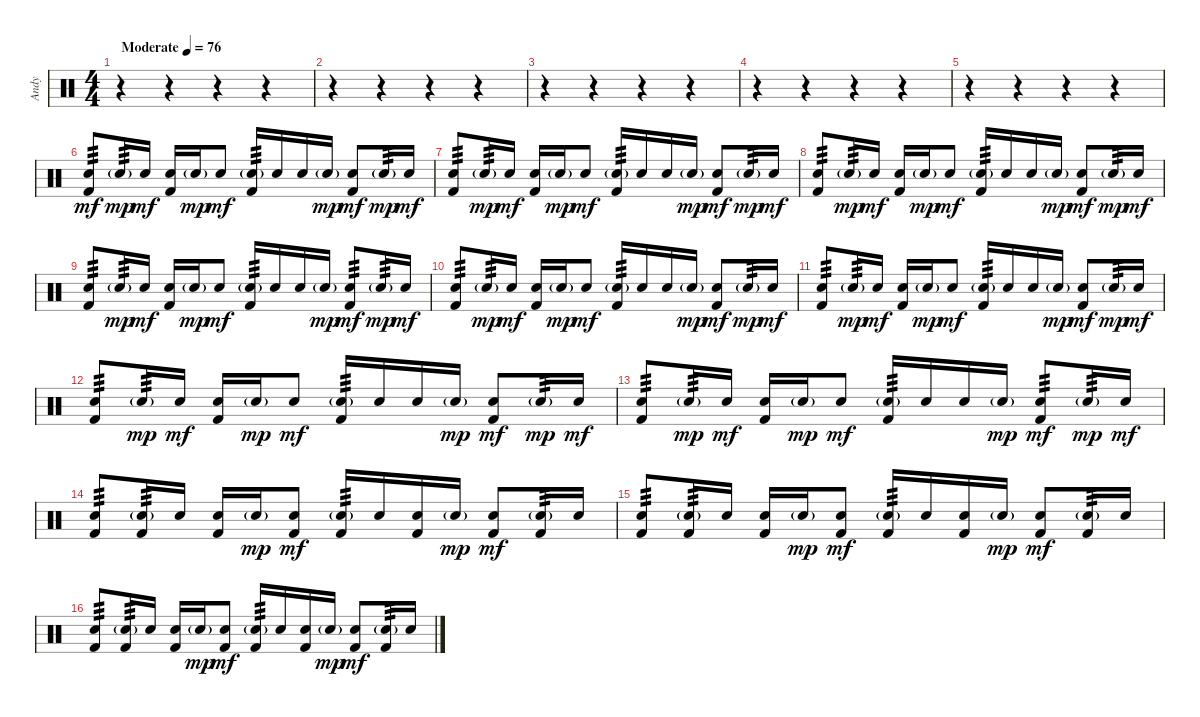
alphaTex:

\track ("Andy" "Andy") {instrument percussion}
\staff {score}
\articulation defaults
\ts (4 4)
\tempo (76 "Moderate")
\clef neutral
\ks c
r.4{dy mf} r.4 r.4 r.4 |
r.4 r.4 r.4 r.4 |
r.4 r.4 r.4 r.4 |
r.4 r.4 r.4 r.4 |
r.4 r.4 r.4 r.4 |
("Electric Snare (hit)" "Kick (hit) 2").8{tp 3} "Electric Snare (hit)"{g}.16{tp 3 dy mp} "Electric Snare (hit)".16{dy mf} ("Electric Snare (hit)" "Kick (hit) 2").16 "Electric Snare (hit)"{g}.16{dy mp} "Electric Snare (hit)".8{dy mf} ("Electric Snare (hit)"{g} "Kick (hit) 2").16{tp 3} "Electric Snare (hit)".16 "Electric Snare (hit)".16 "Electric Snare (hit)"{g}.16{dy mp} ("Electric Snare (hit)" "Kick (hit) 2").8{dy mf} "Electric Snare (hit)"{g}.16{tp 3 dy mp} "Electric Snare (hit)".16{dy mf} |
("Electric Snare (hit)" "Kick (hit) 2").8{tp 3} "Electric Snare (hit)"{g}.16{tp 3 dy mp} "Electric Snare (hit)".16{dy mf} ("Electric Snare (hit)" "Kick (hit) 2").16 "Electric Snare (hit)"{g}.16{dy mp} "Electric Snare (hit)".8{dy mf} ("Electric Snare (hit)"{g} "Kick (hit) 2").16{tp 3} "Electric Snare (hit)".16 "Electric Snare (hit)".16 "Electric Snare (hit)"{g}.16{dy mp} ("Electric Snare (hit)" "Kick (hit) 2").8{dy mf} "Electric Snare (hit)"{g}.16{tp 3 dy mp} "Electric Snare (hit)".16{dy mf} |
("Electric Snare (hit)" "Kick (hit) 2").8{tp 3} "Electric Snare (hit)"{g}.16{tp 3 dy mp} "Electric Snare (hit)".16{dy mf} ("Electric Snare (hit)" "Kick (hit) 2").16 "Electric Snare (hit)"{g}.16{dy mp} "Electric Snare (hit)".8{dy mf} ("Electric Snare (hit)"{g} "Kick (hit) 2").16{tp 3} "Electric Snare (hit)".16 "Electric Snare (hit)".16 "Electric Snare (hit)"{g}.16{dy mp} ("Electric Snare (hit)" "Kick (hit) 2").8{dy mf} "Electric Snare (hit)"{g}.16{tp 3 dy mp} "Electric Snare (hit)".16{dy mf} |
("Electric Snare (hit)" "Kick (hit) 2").8{tp 3} "Electric Snare (hit)"{g}.16{tp 3 dy mp} "Electric Snare (hit)".16{dy mf} ("Electric Snare (hit)" "Kick (hit) 2").16 "Electric Snare (hit)"{g}.16{dy mp} "Electric Snare (hit)".8{dy mf} ("Electric Snare (hit)"{g} "Kick (hit) 2").16{tp 3} "Electric Snare (hit)".16 "Electric Snare (hit)".16 "Electric Snare (hit)"{g}.16{dy mp} ("Electric Snare (hit)" "Kick (hit) 2").8{tp 3 dy mf} "Electric Snare (hit)"{g}.16{tp 3 dy mp} "Electric Snare (hit)".16{dy mf} |
("Electric Snare (hit)" "Kick (hit) 2").8{tp 3} "Electric Snare (hit)"{g}.16{tp 3 dy mp} "Electric Snare (hit)".16{dy mf} ("Electric Snare (hit)" "Kick (hit) 2").16 "Electric Snare (hit)"{g}.16{dy mp} "Electric Snare (hit)".8{dy mf} ("Electric Snare (hit)"{g} "Kick (hit) 2").16{tp 3} "Electric Snare (hit)".16 "Electric Snare (hit)".16 "Electric Snare (hit)"{g}.16{dy mp} ("Electric Snare (hit)" "Kick (hit) 2").8{dy mf} "Electric Snare (hit)"{g}.16{tp 3 dy mp} "Electric Snare (hit)".16{dy mf} |
("Electric Snare (hit)" "Kick (hit) 2").8{tp 3} "Electric Snare (hit)"{g}.16{tp 3 dy mp} "Electric Snare (hit)".16{dy mf} ("Electric Snare (hit)" "Kick (hit) 2").16 "Electric Snare (hit)"{g}.16{dy mp} "Electric Snare (hit)".8{dy mf} ("Electric Snare (hit)"{g} "Kick (hit) 2").16{tp 3} "Electric Snare (hit)".16 "Electric Snare (hit)".16 "Electric Snare (hit)"{g}.16{dy mp} ("Electric Snare (hit)" "Kick (hit) 2").8{dy mf} "Electric Snare (hit)"{g}.16{tp 3 dy mp} "Electric Snare (hit)".16{dy mf} |
("Electric Snare (hit)" "Kick (hit) 2").8{tp 3} "Electric Snare (hit)"{g}.16{tp 3 dy mp} "Electric Snare (hit)".16{dy mf} ("Electric Snare (hit)" "Kick (hit) 2").16 "Electric Snare (hit)"{g}.16{dy mp} "Electric Snare (hit)".8{dy mf} ("Electric Snare (hit)"{g} "Kick (hit) 2").16{tp 3} "Electric Snare (hit)".16 "Electric Snare (hit)".16 "Electric Snare (hit)"{g}.16{dy mp} ("Electric Snare (hit)" "Kick (hit) 2").8{dy mf} "Electric Snare (hit)"{g}.16{tp 3 dy mp} "Electric Snare (hit)".16{dy mf} |
("Electric Snare (hit)" "Kick (hit) 2").8{tp 3} "Electric Snare (hit)"{g}.16{tp 3 dy mp} "Electric Snare (hit)".16{dy mf} ("Electric Snare (hit)" "Kick (hit) 2").16 "Electric Snare (hit)"{g}.16{dy mp} "Electric Snare (hit)".8{dy mf} ("Electric Snare (hit)"{g} "Kick (hit) 2").16{tp 3} "Electric Snare (hit)".16 "Electric Snare (hit)".16 "Electric Snare (hit)"{g}.16{dy mp} ("Electric Snare (hit)" "Kick (hit) 2").8{tp 3 dy mf} "Electric Snare (hit)"{g}.16{tp 3 dy mp} "Electric Snare (hit)".16{dy mf} |
("Electric Snare (hit)" "Kick (hit) 2").8{tp 3} ("Electric Snare (hit)"{g} "Kick (hit) 2").16{tp 3} "Electric Snare (hit)".16 ("Electric Snare (hit)" "Kick (hit) 2").16 "Electric Snare (hit)"{g}.16{dy mp} ("Electric Snare (hit)" "Kick (hit) 2").8{dy mf} ("Electric Snare (hit)"{g} "Kick (hit) 2").16{tp 3} "Electric Snare (hit)".16 ("Electric Snare (hit)" "Kick (hit) 2").16 "Electric Snare (hit)"{g}.16{dy mp} ("Electric Snare (hit)" "Kick (hit) 2").8{dy mf} ("Electric Snare (hit)"{g} "Kick (hit) 2").16{tp 3} "Electric Snare (hit)".16 |
("Electric Snare (hit)" "Kick (hit) 2").8{tp 3} ("Electric Snare (hit)"{g} "Kick (hit) 2").16{tp 3} "Electric Snare (hit)".16 ("Electric Snare (hit)" "Kick (hit) 2").16 "Electric Snare (hit)"{g}.16{dy mp} ("Electric Snare (hit)" "Kick (hit) 2").8{dy mf} ("Electric Snare (hit)"{g} "Kick (hit) 2").16{tp 3} "Electric Snare (hit)".16 ("Electric Snare (hit)" "Kick (hit) 2").16 "Electric Snare (hit)"{g}.16{dy mp} ("Electric Snare (hit)" "Kick (hit) 2").8{dy mf} ("Electric Snare (hit)"{g} "Kick (hit) 2").16{tp 3} "Electric Snare (hit)".16 |
("Electric Snare (hit)" "Kick (hit) 2").8{tp 3} ("Electric Snare (hit)"{g} "Kick (hit) 2").16{tp 3} "Electric Snare (hit)".16 ("Electric Snare (hit)" "Kick (hit) 2").16 "Electric Snare (hit)"{g}.16{dy mp} ("Electric Snare (hit)" "Kick (hit) 2").8{dy mf} ("Electric Snare (hit)"{g} "Kick (hit) 2").16{tp 3} "Electric Snare (hit)".16 ("Electric Snare (hit)" "Kick (hit) 2").16 "Electric Snare (hit)"{g}.16{dy mp} ("Electric Snare (hit)" "Kick (hit) 2").8{dy mf} ("Electric Snare (hit)"{g} "Kick (hit) 2").16{tp 3} "Electric Snare (hit)".16
